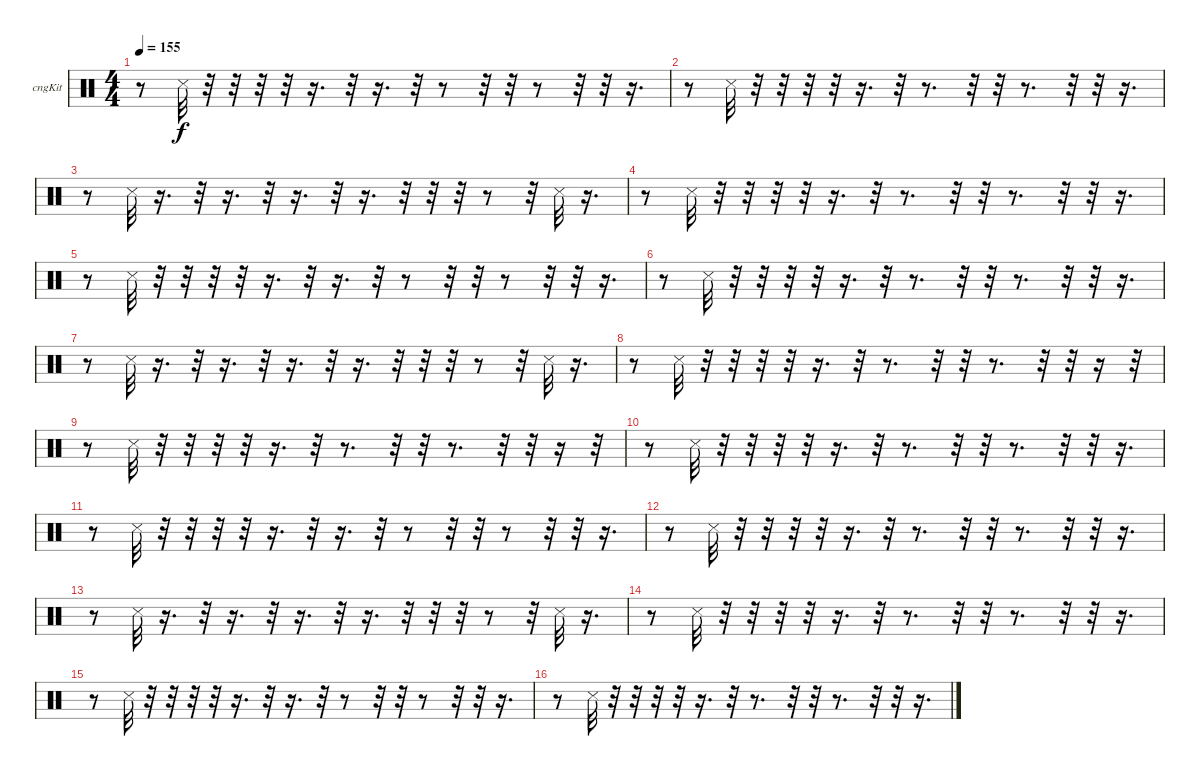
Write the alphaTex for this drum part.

\bracketExtendMode groupsimilarinstruments
\firstSystemTrackNameOrientation horizontal
\otherSystemsTrackNameOrientation horizontal
\track ("Е. Кулаков" "cngKit") {instrument percussion}
\staff {score}
\articulation defaults
\ts (4 4)
\tempo 155
\clef neutral
\ks c
r.8{dy f} "Snare (side stick) 3".32 r.32 r.32 r.32 r.32 r.16{d} r.32 r.16{d} r.32 r.8 r.32 r.32 r.8 r.32 r.32 r.16{d} |
r.8 "Snare (side stick) 3".32 r.32 r.32 r.32 r.32 r.16{d} r.32 r.8{d} r.32 r.32 r.8{d} r.32 r.32 r.16{d} |
r.8 "Snare (side stick) 3".32 r.16{d} r.32 r.16{d} r.32 r.16{d} r.32 r.16{d} r.32 r.32 r.32 r.8 r.32 "Snare (side stick) 3".32 r.16{d} |
r.8 "Snare (side stick) 3".32 r.32 r.32 r.32 r.32 r.16{d} r.32 r.8{d} r.32 r.32 r.8{d} r.32 r.32 r.16{d} |
r.8 "Snare (side stick) 3".32 r.32 r.32 r.32 r.32 r.16{d} r.32 r.16{d} r.32 r.8 r.32 r.32 r.8 r.32 r.32 r.16{d} |
r.8 "Snare (side stick) 3".32 r.32 r.32 r.32 r.32 r.16{d} r.32 r.8{d} r.32 r.32 r.8{d} r.32 r.32 r.16{d} |
r.8 "Snare (side stick) 3".32 r.16{d} r.32 r.16{d} r.32 r.16{d} r.32 r.16{d} r.32 r.32 r.32 r.8 r.32 "Snare (side stick) 3".32 r.16{d} |
r.8 "Snare (side stick) 3".32 r.32 r.32 r.32 r.32 r.16{d} r.32 r.8{d} r.32 r.32 r.8{d} r.32 r.32 r.16 r.32 |
r.8 "Snare (side stick) 3".32 r.32 r.32 r.32 r.32 r.16{d} r.32 r.8{d} r.32 r.32 r.8{d} r.32 r.32 r.16 r.32 |
r.8 "Snare (side stick) 3".32 r.32 r.32 r.32 r.32 r.16{d} r.32 r.8{d} r.32 r.32 r.8{d} r.32 r.32 r.16{d} |
r.8 "Snare (side stick) 3".32 r.32 r.32 r.32 r.32 r.16{d} r.32 r.16{d} r.32 r.8 r.32 r.32 r.8 r.32 r.32 r.16{d} |
r.8 "Snare (side stick) 3".32 r.32 r.32 r.32 r.32 r.16{d} r.32 r.8{d} r.32 r.32 r.8{d} r.32 r.32 r.16{d} |
r.8 "Snare (side stick) 3".32 r.16{d} r.32 r.16{d} r.32 r.16{d} r.32 r.16{d} r.32 r.32 r.32 r.8 r.32 "Snare (side stick) 3".32 r.16{d} |
r.8 "Snare (side stick) 3".32 r.32 r.32 r.32 r.32 r.16{d} r.32 r.8{d} r.32 r.32 r.8{d} r.32 r.32 r.16{d} |
r.8 "Snare (side stick) 3".32 r.32 r.32 r.32 r.32 r.16{d} r.32 r.16{d} r.32 r.8 r.32 r.32 r.8 r.32 r.32 r.16{d} |
r.8 "Snare (side stick) 3".32 r.32 r.32 r.32 r.32 r.16{d} r.32 r.8{d} r.32 r.32 r.8{d} r.32 r.32 r.16{d}
